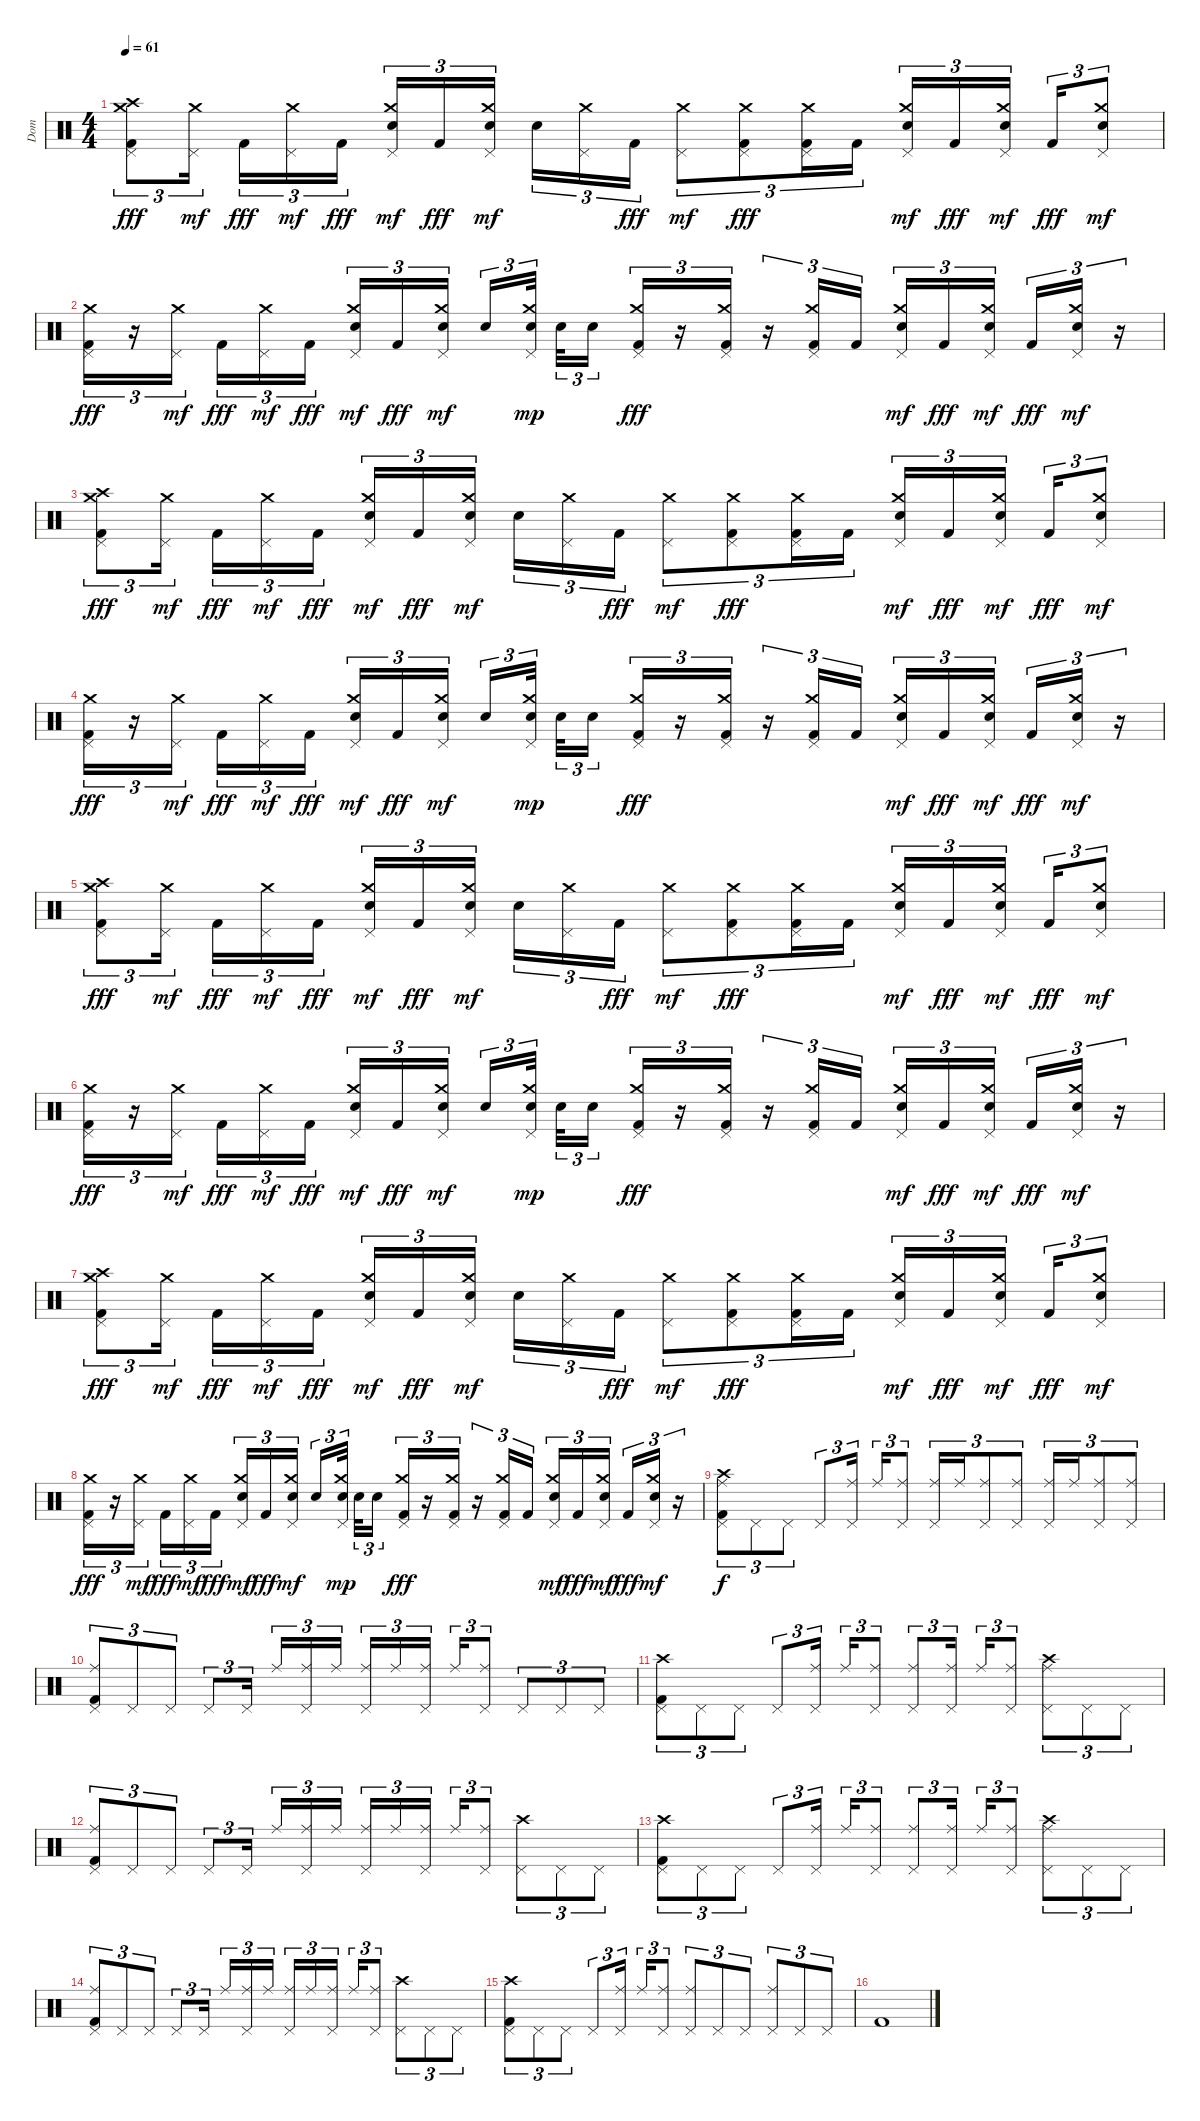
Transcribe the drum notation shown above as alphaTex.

\track ("Dom" "Dom") {instrument percussion}
\staff {score}
\articulation defaults
\ts (4 4)
\tempo 61
\clef neutral
\ks c
("Crash high (hit)" "Pedal Hi-Hat (hit)" "Crash medium (hit)" "Kick (hit) 2").8{tu (3 2) dy fff} ("Pedal Hi-Hat (hit)" "Crash medium (hit)").16{tu (3 2) dy mf beam splitsecondary} "Kick (hit) 2".16{tu (3 2) dy fff} ("Pedal Hi-Hat (hit)" "Crash medium (hit)").16{tu (3 2) dy mf} "Kick (hit) 2".16{tu (3 2) dy fff} ("Pedal Hi-Hat (hit)" "Crash medium (hit)" "Electric Snare (hit)").16{tu (3 2) dy mf} "Kick (hit) 2".16{tu (3 2) dy fff} ("Pedal Hi-Hat (hit)" "Crash medium (hit)" "Electric Snare (hit)").16{tu (3 2) dy mf beam splitsecondary} "Electric Snare (hit)".16{tu (3 2)} ("Pedal Hi-Hat (hit)" "Crash medium (hit)").16{tu (3 2)} "Kick (hit) 2".16{tu (3 2) dy fff} ("Pedal Hi-Hat (hit)" "Crash medium (hit)").8{tu (3 2) dy mf} ("Pedal Hi-Hat (hit)" "Crash medium (hit)" "Kick (hit) 2").8{tu (3 2) dy fff} ("Pedal Hi-Hat (hit)" "Crash medium (hit)" "Kick (hit) 2").16{tu (3 2)} "Kick (hit) 2".16{tu (3 2)} ("Pedal Hi-Hat (hit)" "Crash medium (hit)" "Electric Snare (hit)").16{tu (3 2) dy mf} "Kick (hit) 2".16{tu (3 2) dy fff} ("Pedal Hi-Hat (hit)" "Crash medium (hit)" "Electric Snare (hit)").16{tu (3 2) dy mf beam splitsecondary} "Kick (hit) 2".16{tu (3 2) dy fff} ("Pedal Hi-Hat (hit)" "Crash medium (hit)" "Electric Snare (hit)").8{tu (3 2) dy mf} |
("Pedal Hi-Hat (hit)" "Crash medium (hit)" "Kick (hit) 2").16{tu (3 2) dy fff} r.16{tu (3 2)} ("Pedal Hi-Hat (hit)" "Crash medium (hit)").16{tu (3 2) dy mf beam splitsecondary} "Kick (hit) 2".16{tu (3 2) dy fff} ("Pedal Hi-Hat (hit)" "Crash medium (hit)").16{tu (3 2) dy mf} "Kick (hit) 2".16{tu (3 2) dy fff} ("Pedal Hi-Hat (hit)" "Crash medium (hit)" "Electric Snare (hit)").16{tu (3 2) dy mf} "Kick (hit) 2".16{tu (3 2) dy fff} ("Pedal Hi-Hat (hit)" "Crash medium (hit)" "Electric Snare (hit)").16{tu (3 2) dy mf beam splitsecondary} "Electric Snare (hit)".16{tu (3 2)} ("Pedal Hi-Hat (hit)" "Crash medium (hit)" "Electric Snare (hit)").32{tu (3 2) dy mp beam splitsecondary} "Electric Snare (hit)".32{tu (3 2)} "Electric Snare (hit)".16{tu (3 2)} ("Pedal Hi-Hat (hit)" "Crash medium (hit)" "Kick (hit) 2").16{tu (3 2) dy fff} r.16{tu (3 2)} ("Pedal Hi-Hat (hit)" "Crash medium (hit)" "Kick (hit) 2").16{tu (3 2)} r.16{tu (3 2)} ("Pedal Hi-Hat (hit)" "Crash medium (hit)" "Kick (hit) 2").16{tu (3 2)} "Kick (hit) 2".16{tu (3 2)} ("Pedal Hi-Hat (hit)" "Crash medium (hit)" "Electric Snare (hit)").16{tu (3 2) dy mf} "Kick (hit) 2".16{tu (3 2) dy fff} ("Pedal Hi-Hat (hit)" "Crash medium (hit)" "Electric Snare (hit)").16{tu (3 2) dy mf beam splitsecondary} "Kick (hit) 2".16{tu (3 2) dy fff} ("Pedal Hi-Hat (hit)" "Crash medium (hit)" "Electric Snare (hit)").16{tu (3 2) dy mf} r.16{tu (3 2)} |
("Crash high (hit)" "Pedal Hi-Hat (hit)" "Crash medium (hit)" "Kick (hit) 2").8{tu (3 2) dy fff} ("Pedal Hi-Hat (hit)" "Crash medium (hit)").16{tu (3 2) dy mf beam splitsecondary} "Kick (hit) 2".16{tu (3 2) dy fff} ("Pedal Hi-Hat (hit)" "Crash medium (hit)").16{tu (3 2) dy mf} "Kick (hit) 2".16{tu (3 2) dy fff} ("Pedal Hi-Hat (hit)" "Crash medium (hit)" "Electric Snare (hit)").16{tu (3 2) dy mf} "Kick (hit) 2".16{tu (3 2) dy fff} ("Pedal Hi-Hat (hit)" "Crash medium (hit)" "Electric Snare (hit)").16{tu (3 2) dy mf beam splitsecondary} "Electric Snare (hit)".16{tu (3 2)} ("Pedal Hi-Hat (hit)" "Crash medium (hit)").16{tu (3 2)} "Kick (hit) 2".16{tu (3 2) dy fff} ("Pedal Hi-Hat (hit)" "Crash medium (hit)").8{tu (3 2) dy mf} ("Pedal Hi-Hat (hit)" "Crash medium (hit)" "Kick (hit) 2").8{tu (3 2) dy fff} ("Pedal Hi-Hat (hit)" "Crash medium (hit)" "Kick (hit) 2").16{tu (3 2)} "Kick (hit) 2".16{tu (3 2)} ("Pedal Hi-Hat (hit)" "Crash medium (hit)" "Electric Snare (hit)").16{tu (3 2) dy mf} "Kick (hit) 2".16{tu (3 2) dy fff} ("Pedal Hi-Hat (hit)" "Crash medium (hit)" "Electric Snare (hit)").16{tu (3 2) dy mf beam splitsecondary} "Kick (hit) 2".16{tu (3 2) dy fff} ("Pedal Hi-Hat (hit)" "Crash medium (hit)" "Electric Snare (hit)").8{tu (3 2) dy mf} |
("Pedal Hi-Hat (hit)" "Crash medium (hit)" "Kick (hit) 2").16{tu (3 2) dy fff} r.16{tu (3 2)} ("Pedal Hi-Hat (hit)" "Crash medium (hit)").16{tu (3 2) dy mf beam splitsecondary} "Kick (hit) 2".16{tu (3 2) dy fff} ("Pedal Hi-Hat (hit)" "Crash medium (hit)").16{tu (3 2) dy mf} "Kick (hit) 2".16{tu (3 2) dy fff} ("Pedal Hi-Hat (hit)" "Crash medium (hit)" "Electric Snare (hit)").16{tu (3 2) dy mf} "Kick (hit) 2".16{tu (3 2) dy fff} ("Pedal Hi-Hat (hit)" "Crash medium (hit)" "Electric Snare (hit)").16{tu (3 2) dy mf beam splitsecondary} "Electric Snare (hit)".16{tu (3 2)} ("Pedal Hi-Hat (hit)" "Crash medium (hit)" "Electric Snare (hit)").32{tu (3 2) dy mp beam splitsecondary} "Electric Snare (hit)".32{tu (3 2)} "Electric Snare (hit)".16{tu (3 2)} ("Pedal Hi-Hat (hit)" "Crash medium (hit)" "Kick (hit) 2").16{tu (3 2) dy fff} r.16{tu (3 2)} ("Pedal Hi-Hat (hit)" "Crash medium (hit)" "Kick (hit) 2").16{tu (3 2)} r.16{tu (3 2)} ("Pedal Hi-Hat (hit)" "Crash medium (hit)" "Kick (hit) 2").16{tu (3 2)} "Kick (hit) 2".16{tu (3 2)} ("Pedal Hi-Hat (hit)" "Crash medium (hit)" "Electric Snare (hit)").16{tu (3 2) dy mf} "Kick (hit) 2".16{tu (3 2) dy fff} ("Pedal Hi-Hat (hit)" "Crash medium (hit)" "Electric Snare (hit)").16{tu (3 2) dy mf beam splitsecondary} "Kick (hit) 2".16{tu (3 2) dy fff} ("Pedal Hi-Hat (hit)" "Crash medium (hit)" "Electric Snare (hit)").16{tu (3 2) dy mf} r.16{tu (3 2)} |
("Crash high (hit)" "Pedal Hi-Hat (hit)" "Crash medium (hit)" "Kick (hit) 2").8{tu (3 2) dy fff} ("Pedal Hi-Hat (hit)" "Crash medium (hit)").16{tu (3 2) dy mf beam splitsecondary} "Kick (hit) 2".16{tu (3 2) dy fff} ("Pedal Hi-Hat (hit)" "Crash medium (hit)").16{tu (3 2) dy mf} "Kick (hit) 2".16{tu (3 2) dy fff} ("Pedal Hi-Hat (hit)" "Crash medium (hit)" "Electric Snare (hit)").16{tu (3 2) dy mf} "Kick (hit) 2".16{tu (3 2) dy fff} ("Pedal Hi-Hat (hit)" "Crash medium (hit)" "Electric Snare (hit)").16{tu (3 2) dy mf beam splitsecondary} "Electric Snare (hit)".16{tu (3 2)} ("Pedal Hi-Hat (hit)" "Crash medium (hit)").16{tu (3 2)} "Kick (hit) 2".16{tu (3 2) dy fff} ("Pedal Hi-Hat (hit)" "Crash medium (hit)").8{tu (3 2) dy mf} ("Pedal Hi-Hat (hit)" "Crash medium (hit)" "Kick (hit) 2").8{tu (3 2) dy fff} ("Pedal Hi-Hat (hit)" "Crash medium (hit)" "Kick (hit) 2").16{tu (3 2)} "Kick (hit) 2".16{tu (3 2)} ("Pedal Hi-Hat (hit)" "Crash medium (hit)" "Electric Snare (hit)").16{tu (3 2) dy mf} "Kick (hit) 2".16{tu (3 2) dy fff} ("Pedal Hi-Hat (hit)" "Crash medium (hit)" "Electric Snare (hit)").16{tu (3 2) dy mf beam splitsecondary} "Kick (hit) 2".16{tu (3 2) dy fff} ("Pedal Hi-Hat (hit)" "Crash medium (hit)" "Electric Snare (hit)").8{tu (3 2) dy mf} |
("Pedal Hi-Hat (hit)" "Crash medium (hit)" "Kick (hit) 2").16{tu (3 2) dy fff} r.16{tu (3 2)} ("Pedal Hi-Hat (hit)" "Crash medium (hit)").16{tu (3 2) dy mf beam splitsecondary} "Kick (hit) 2".16{tu (3 2) dy fff} ("Pedal Hi-Hat (hit)" "Crash medium (hit)").16{tu (3 2) dy mf} "Kick (hit) 2".16{tu (3 2) dy fff} ("Pedal Hi-Hat (hit)" "Crash medium (hit)" "Electric Snare (hit)").16{tu (3 2) dy mf} "Kick (hit) 2".16{tu (3 2) dy fff} ("Pedal Hi-Hat (hit)" "Crash medium (hit)" "Electric Snare (hit)").16{tu (3 2) dy mf beam splitsecondary} "Electric Snare (hit)".16{tu (3 2)} ("Pedal Hi-Hat (hit)" "Crash medium (hit)" "Electric Snare (hit)").32{tu (3 2) dy mp beam splitsecondary} "Electric Snare (hit)".32{tu (3 2)} "Electric Snare (hit)".16{tu (3 2)} ("Pedal Hi-Hat (hit)" "Crash medium (hit)" "Kick (hit) 2").16{tu (3 2) dy fff} r.16{tu (3 2)} ("Pedal Hi-Hat (hit)" "Crash medium (hit)" "Kick (hit) 2").16{tu (3 2)} r.16{tu (3 2)} ("Pedal Hi-Hat (hit)" "Crash medium (hit)" "Kick (hit) 2").16{tu (3 2)} "Kick (hit) 2".16{tu (3 2)} ("Pedal Hi-Hat (hit)" "Crash medium (hit)" "Electric Snare (hit)").16{tu (3 2) dy mf} "Kick (hit) 2".16{tu (3 2) dy fff} ("Pedal Hi-Hat (hit)" "Crash medium (hit)" "Electric Snare (hit)").16{tu (3 2) dy mf beam splitsecondary} "Kick (hit) 2".16{tu (3 2) dy fff} ("Pedal Hi-Hat (hit)" "Crash medium (hit)" "Electric Snare (hit)").16{tu (3 2) dy mf} r.16{tu (3 2)} |
("Crash high (hit)" "Pedal Hi-Hat (hit)" "Crash medium (hit)" "Kick (hit) 2").8{tu (3 2) dy fff} ("Pedal Hi-Hat (hit)" "Crash medium (hit)").16{tu (3 2) dy mf beam splitsecondary} "Kick (hit) 2".16{tu (3 2) dy fff} ("Pedal Hi-Hat (hit)" "Crash medium (hit)").16{tu (3 2) dy mf} "Kick (hit) 2".16{tu (3 2) dy fff} ("Pedal Hi-Hat (hit)" "Crash medium (hit)" "Electric Snare (hit)").16{tu (3 2) dy mf} "Kick (hit) 2".16{tu (3 2) dy fff} ("Pedal Hi-Hat (hit)" "Crash medium (hit)" "Electric Snare (hit)").16{tu (3 2) dy mf beam splitsecondary} "Electric Snare (hit)".16{tu (3 2)} ("Pedal Hi-Hat (hit)" "Crash medium (hit)").16{tu (3 2)} "Kick (hit) 2".16{tu (3 2) dy fff} ("Pedal Hi-Hat (hit)" "Crash medium (hit)").8{tu (3 2) dy mf} ("Pedal Hi-Hat (hit)" "Crash medium (hit)" "Kick (hit) 2").8{tu (3 2) dy fff} ("Pedal Hi-Hat (hit)" "Crash medium (hit)" "Kick (hit) 2").16{tu (3 2)} "Kick (hit) 2".16{tu (3 2)} ("Pedal Hi-Hat (hit)" "Crash medium (hit)" "Electric Snare (hit)").16{tu (3 2) dy mf} "Kick (hit) 2".16{tu (3 2) dy fff} ("Pedal Hi-Hat (hit)" "Crash medium (hit)" "Electric Snare (hit)").16{tu (3 2) dy mf beam splitsecondary} "Kick (hit) 2".16{tu (3 2) dy fff} ("Pedal Hi-Hat (hit)" "Crash medium (hit)" "Electric Snare (hit)").8{tu (3 2) dy mf} |
("Pedal Hi-Hat (hit)" "Crash medium (hit)" "Kick (hit) 2").16{tu (3 2) dy fff} r.16{tu (3 2)} ("Pedal Hi-Hat (hit)" "Crash medium (hit)").16{tu (3 2) dy mf beam splitsecondary} "Kick (hit) 2".16{tu (3 2) dy fff} ("Pedal Hi-Hat (hit)" "Crash medium (hit)").16{tu (3 2) dy mf} "Kick (hit) 2".16{tu (3 2) dy fff} ("Pedal Hi-Hat (hit)" "Crash medium (hit)" "Electric Snare (hit)").16{tu (3 2) dy mf} "Kick (hit) 2".16{tu (3 2) dy fff} ("Pedal Hi-Hat (hit)" "Crash medium (hit)" "Electric Snare (hit)").16{tu (3 2) dy mf beam splitsecondary} "Electric Snare (hit)".16{tu (3 2)} ("Pedal Hi-Hat (hit)" "Crash medium (hit)" "Electric Snare (hit)").32{tu (3 2) dy mp beam splitsecondary} "Electric Snare (hit)".32{tu (3 2)} "Electric Snare (hit)".16{tu (3 2)} ("Pedal Hi-Hat (hit)" "Crash medium (hit)" "Kick (hit) 2").16{tu (3 2) dy fff} r.16{tu (3 2)} ("Pedal Hi-Hat (hit)" "Crash medium (hit)" "Kick (hit) 2").16{tu (3 2)} r.16{tu (3 2)} ("Pedal Hi-Hat (hit)" "Crash medium (hit)" "Kick (hit) 2").16{tu (3 2)} "Kick (hit) 2".16{tu (3 2)} ("Pedal Hi-Hat (hit)" "Crash medium (hit)" "Electric Snare (hit)").16{tu (3 2) dy mf} "Kick (hit) 2".16{tu (3 2) dy fff} ("Pedal Hi-Hat (hit)" "Crash medium (hit)" "Electric Snare (hit)").16{tu (3 2) dy mf beam splitsecondary} "Kick (hit) 2".16{tu (3 2) dy fff} ("Pedal Hi-Hat (hit)" "Crash medium (hit)" "Electric Snare (hit)").16{tu (3 2) dy mf} r.16{tu (3 2)} |
("Crash high (hit)" "Ride (middle)" "Pedal Hi-Hat (hit)" "Kick (hit) 2").8{tu (3 2) dy f volume 6} "Pedal Hi-Hat (hit)".8{tu (3 2)} "Pedal Hi-Hat (hit)".8{tu (3 2)} "Pedal Hi-Hat (hit)".8{tu (3 2)} ("Ride (middle)" "Pedal Hi-Hat (hit)").16{tu (3 2) beam splitsecondary} "Ride (middle)".16{tu (3 2)} ("Ride (middle)" "Pedal Hi-Hat (hit)").8{tu (3 2)} ("Ride (middle)" "Pedal Hi-Hat (hit)").16{tu (3 2)} "Ride (middle)".16{tu (3 2)} ("Ride (middle)" "Pedal Hi-Hat (hit)").8{tu (3 2)} ("Ride (middle)" "Pedal Hi-Hat (hit)").8{tu (3 2)} ("Ride (middle)" "Pedal Hi-Hat (hit)").16{tu (3 2)} "Ride (middle)".16{tu (3 2)} ("Ride (middle)" "Pedal Hi-Hat (hit)").8{tu (3 2)} ("Ride (middle)" "Pedal Hi-Hat (hit)").8{tu (3 2)} |
("Ride (middle)" "Pedal Hi-Hat (hit)" "Kick (hit) 2").8{tu (3 2)} "Pedal Hi-Hat (hit)".8{tu (3 2)} "Pedal Hi-Hat (hit)".8{tu (3 2)} "Pedal Hi-Hat (hit)".8{tu (3 2)} "Pedal Hi-Hat (hit)".16{tu (3 2) beam splitsecondary} "Ride (middle)".16{tu (3 2)} ("Ride (middle)" "Pedal Hi-Hat (hit)").16{tu (3 2)} "Ride (middle)".16{tu (3 2)} ("Ride (middle)" "Pedal Hi-Hat (hit)").16{tu (3 2)} "Ride (middle)".16{tu (3 2)} ("Ride (middle)" "Pedal Hi-Hat (hit)").16{tu (3 2) beam splitsecondary} "Ride (middle)".16{tu (3 2)} ("Ride (middle)" "Pedal Hi-Hat (hit)").8{tu (3 2)} "Pedal Hi-Hat (hit)".8{tu (3 2)} "Pedal Hi-Hat (hit)".8{tu (3 2)} "Pedal Hi-Hat (hit)".8{tu (3 2)} |
("Crash high (hit)" "Pedal Hi-Hat (hit)" "Kick (hit) 2").8{tu (3 2)} "Pedal Hi-Hat (hit)".8{tu (3 2)} "Pedal Hi-Hat (hit)".8{tu (3 2)} "Pedal Hi-Hat (hit)".8{tu (3 2)} ("Ride (middle)" "Pedal Hi-Hat (hit)").16{tu (3 2) beam splitsecondary} "Ride (middle)".16{tu (3 2)} ("Ride (middle)" "Pedal Hi-Hat (hit)").8{tu (3 2)} ("Ride (middle)" "Pedal Hi-Hat (hit)").8{tu (3 2)} ("Ride (middle)" "Pedal Hi-Hat (hit)").16{tu (3 2) beam splitsecondary} "Ride (middle)".16{tu (3 2)} ("Ride (middle)" "Pedal Hi-Hat (hit)").8{tu (3 2)} ("Crash high (hit)" "Ride (middle)" "Pedal Hi-Hat (hit)").8{tu (3 2)} "Pedal Hi-Hat (hit)".8{tu (3 2)} "Pedal Hi-Hat (hit)".8{tu (3 2)} |
("Ride (middle)" "Pedal Hi-Hat (hit)" "Kick (hit) 2").8{tu (3 2)} "Pedal Hi-Hat (hit)".8{tu (3 2)} "Pedal Hi-Hat (hit)".8{tu (3 2)} "Pedal Hi-Hat (hit)".8{tu (3 2)} "Pedal Hi-Hat (hit)".16{tu (3 2) beam splitsecondary} "Ride (middle)".16{tu (3 2)} ("Ride (middle)" "Pedal Hi-Hat (hit)").16{tu (3 2)} "Ride (middle)".16{tu (3 2)} ("Ride (middle)" "Pedal Hi-Hat (hit)").16{tu (3 2)} "Ride (middle)".16{tu (3 2)} ("Ride (middle)" "Pedal Hi-Hat (hit)").16{tu (3 2) beam splitsecondary} "Ride (middle)".16{tu (3 2)} ("Ride (middle)" "Pedal Hi-Hat (hit)").8{tu (3 2)} ("Crash high (hit)" "Pedal Hi-Hat (hit)").8{tu (3 2)} "Pedal Hi-Hat (hit)".8{tu (3 2)} "Pedal Hi-Hat (hit)".8{tu (3 2)} |
("Crash high (hit)" "Pedal Hi-Hat (hit)" "Kick (hit) 2").8{tu (3 2)} "Pedal Hi-Hat (hit)".8{tu (3 2)} "Pedal Hi-Hat (hit)".8{tu (3 2)} "Pedal Hi-Hat (hit)".8{tu (3 2)} ("Ride (middle)" "Pedal Hi-Hat (hit)").16{tu (3 2) beam splitsecondary} "Ride (middle)".16{tu (3 2)} ("Ride (middle)" "Pedal Hi-Hat (hit)").8{tu (3 2)} ("Ride (middle)" "Pedal Hi-Hat (hit)").8{tu (3 2)} ("Ride (middle)" "Pedal Hi-Hat (hit)").16{tu (3 2) beam splitsecondary} "Ride (middle)".16{tu (3 2)} ("Ride (middle)" "Pedal Hi-Hat (hit)").8{tu (3 2)} ("Crash high (hit)" "Ride (middle)" "Pedal Hi-Hat (hit)").8{tu (3 2)} "Pedal Hi-Hat (hit)".8{tu (3 2)} "Pedal Hi-Hat (hit)".8{tu (3 2)} |
("Ride (middle)" "Pedal Hi-Hat (hit)" "Kick (hit) 2").8{tu (3 2)} "Pedal Hi-Hat (hit)".8{tu (3 2)} "Pedal Hi-Hat (hit)".8{tu (3 2)} "Pedal Hi-Hat (hit)".8{tu (3 2)} "Pedal Hi-Hat (hit)".16{tu (3 2) beam splitsecondary} "Ride (middle)".16{tu (3 2)} ("Ride (middle)" "Pedal Hi-Hat (hit)").16{tu (3 2)} "Ride (middle)".16{tu (3 2)} ("Ride (middle)" "Pedal Hi-Hat (hit)").16{tu (3 2)} "Ride (middle)".16{tu (3 2)} ("Ride (middle)" "Pedal Hi-Hat (hit)").16{tu (3 2) beam splitsecondary} "Ride (middle)".16{tu (3 2)} ("Ride (middle)" "Pedal Hi-Hat (hit)").8{tu (3 2)} ("Crash high (hit)" "Pedal Hi-Hat (hit)").8{tu (3 2)} "Pedal Hi-Hat (hit)".8{tu (3 2)} "Pedal Hi-Hat (hit)".8{tu (3 2)} |
("Crash high (hit)" "Pedal Hi-Hat (hit)" "Kick (hit) 2").8{tu (3 2)} "Pedal Hi-Hat (hit)".8{tu (3 2)} "Pedal Hi-Hat (hit)".8{tu (3 2)} "Pedal Hi-Hat (hit)".8{tu (3 2)} ("Ride (middle)" "Pedal Hi-Hat (hit)").16{tu (3 2) beam splitsecondary} "Ride (middle)".16{tu (3 2)} ("Ride (middle)" "Pedal Hi-Hat (hit)").8{tu (3 2)} ("Ride (middle)" "Pedal Hi-Hat (hit)").8{tu (3 2)} "Pedal Hi-Hat (hit)".8{tu (3 2)} "Pedal Hi-Hat (hit)".8{tu (3 2)} ("Ride (middle)" "Pedal Hi-Hat (hit)").8{tu (3 2)} "Pedal Hi-Hat (hit)".8{tu (3 2)} "Pedal Hi-Hat (hit)".8{tu (3 2)} |
"Kick (hit) 2".1
